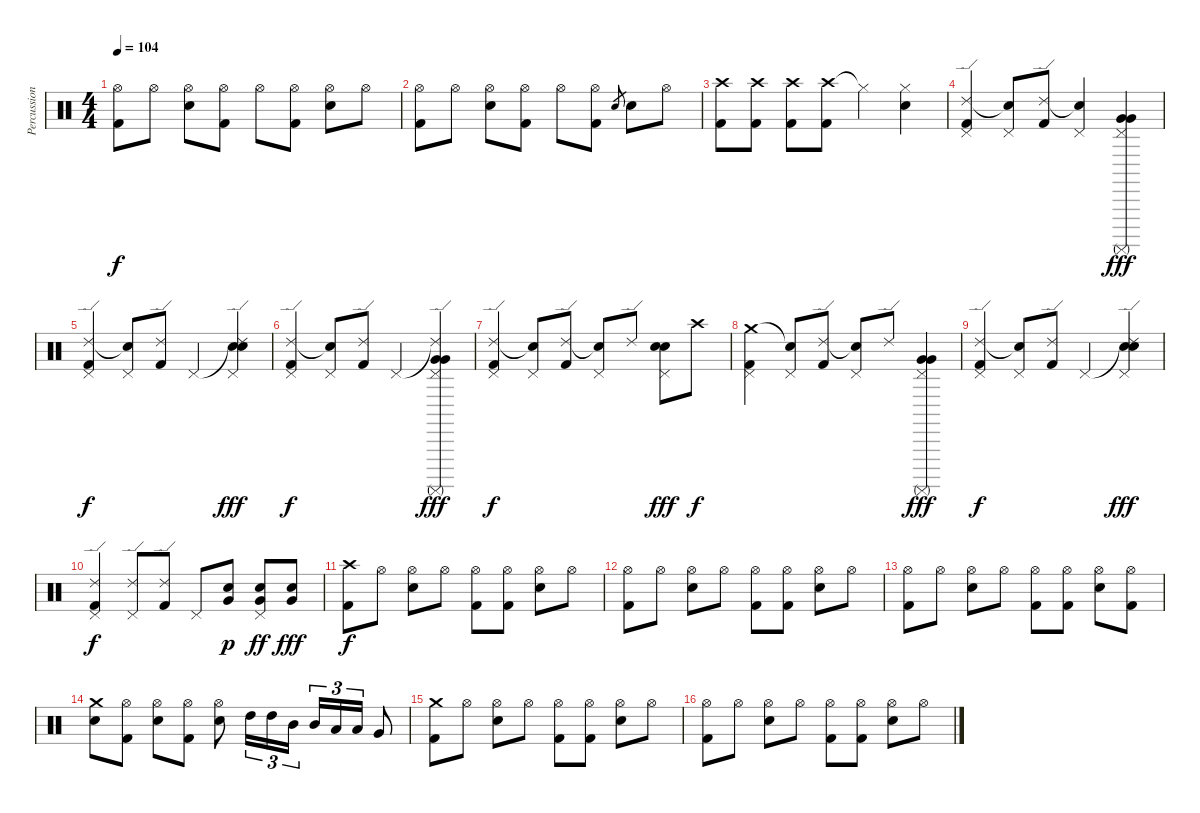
\track ("Percussion" "Percussion") {instrument percussion}
\staff {score}
\articulation defaults
\ts (4 4)
\tempo 104
\clef neutral
\ks c
("Hi-Hat (open)" "Kick (hit) 2").8{dy f} "Hi-Hat (open)".8 ("Hi-Hat (open)" "Snare (hit) 2").8 ("Hi-Hat (open)" "Kick (hit) 2").8 "Hi-Hat (open)".8 ("Hi-Hat (open)" "Kick (hit) 2").8 ("Hi-Hat (open)" "Snare (hit) 2").8 "Hi-Hat (open)".8 |
("Hi-Hat (open)" "Kick (hit) 2").8 "Hi-Hat (open)".8 ("Hi-Hat (open)" "Snare (hit) 2").8 ("Hi-Hat (open)" "Kick (hit) 2").8 "Hi-Hat (open)".8 ("Hi-Hat (open)" "Kick (hit) 2").8 "Snare (hit) 2".8{gr} "Snare (hit) 2".8 "Hi-Hat (open)".8 |
("Crash high (hit)" "Kick (hit) 2").8 ("Crash high (hit)" "Kick (hit) 2").8 ("Crash high (hit)" "Kick (hit) 2").8 ("Crash high (hit)" "Kick (hit) 2").8 "Hi-Hat (closed)"{t}.4 ("Hi-Hat (closed)" "Snare (hit) 2").4 |
("Ride (edge) 2" "Kick (hit) 2" "Pedal Hi-Hat (hit)").4 ("Snare (hit)"{t} "Pedal Hi-Hat (hit)").8 ("Ride (edge) 2" "Kick (hit) 2").8 ("Snare (hit)"{t} "Pedal Hi-Hat (hit)").4 ("Very Low Tom (hit)" "Very Low Tom (hit)" "Surdo (mute)" "Pedal Hi-Hat (hit)").4{dy fff} |
("Ride (edge) 2" "Kick (hit) 2" "Pedal Hi-Hat (hit)").4{dy f} ("Snare (hit)"{t} "Pedal Hi-Hat (hit)").8 ("Ride (edge) 2" "Kick (hit) 2").8 "Pedal Hi-Hat (hit)".4 ("Ride (edge) 2"{t} "Snare (hit) 2" "Snare (hit) 2" "Pedal Hi-Hat (hit)").4{dy fff} |
("Ride (edge) 2" "Kick (hit) 2" "Pedal Hi-Hat (hit)").4{dy f} ("Snare (hit)"{t} "Pedal Hi-Hat (hit)").8 ("Ride (edge) 2" "Kick (hit) 2").8 "Pedal Hi-Hat (hit)".4 ("Ride (edge) 2"{t} "Very Low Tom (hit)" "Very Low Tom (hit)" "Surdo (mute)" "Pedal Hi-Hat (hit)").4{dy fff} |
("Ride (edge) 2" "Kick (hit) 2" "Pedal Hi-Hat (hit)").4{dy f} ("Snare (hit)"{t} "Pedal Hi-Hat (hit)").8 ("Ride (edge) 2" "Kick (hit) 2").8 ("Snare (hit)"{t} "Pedal Hi-Hat (hit)").8 "Ride (edge) 2".8 ("Snare (hit) 2" "Snare (hit) 2" "Pedal Hi-Hat (hit)").8{dy fff} "Crash high (hit)".8{dy f} |
("Crash medium (hit)" "Kick (hit) 2" "Pedal Hi-Hat (hit)").4 ("Snare (hit)"{t} "Pedal Hi-Hat (hit)").8 ("Ride (edge) 2" "Kick (hit) 2").8 ("Snare (hit)"{t} "Pedal Hi-Hat (hit)").8 "Ride (edge) 2".8 ("Very Low Tom (hit)" "Very Low Tom (hit)" "Surdo (mute)" "Pedal Hi-Hat (hit)").4{dy fff} |
("Ride (edge) 2" "Kick (hit) 2" "Pedal Hi-Hat (hit)").4{dy f} ("Snare (hit)"{t} "Pedal Hi-Hat (hit)").8 ("Ride (edge) 2" "Kick (hit) 2").8 "Pedal Hi-Hat (hit)".4 ("Ride (edge) 2"{t} "Snare (hit) 2" "Snare (hit) 2" "Pedal Hi-Hat (hit)").4{dy fff} |
("Ride (edge) 2" "Kick (hit) 2" "Pedal Hi-Hat (hit)").4{dy f} ("Ride (edge) 2" "Pedal Hi-Hat (hit)").8 ("Ride (edge) 2" "Kick (hit) 2").8 "Pedal Hi-Hat (hit)".8 ("Snare (hit) 2" "Very Low Tom (hit)").8{dy p} ("Snare (hit) 2" "Very Low Tom (hit)" "Pedal Hi-Hat (hit)").8{dy ff} ("Snare (hit) 2" "Very Low Tom (hit)").8{dy fff} |
("Crash high (hit)" "Kick (hit) 2").8{dy f} "Hi-Hat (open)".8 ("Hi-Hat (open)" "Snare (hit) 2").8 "Hi-Hat (open)".8 ("Hi-Hat (open)" "Kick (hit) 2").8 ("Hi-Hat (open)" "Kick (hit) 2").8 ("Hi-Hat (open)" "Snare (hit) 2").8 "Hi-Hat (open)".8 |
("Hi-Hat (open)" "Kick (hit) 2").8 "Hi-Hat (open)".8 ("Hi-Hat (open)" "Snare (hit) 2").8 "Hi-Hat (open)".8 ("Hi-Hat (open)" "Kick (hit) 2").8 ("Hi-Hat (open)" "Kick (hit) 2").8 ("Hi-Hat (open)" "Snare (hit) 2").8 "Hi-Hat (open)".8 |
("Hi-Hat (open)" "Kick (hit) 2").8 "Hi-Hat (open)".8 ("Hi-Hat (open)" "Snare (hit) 2").8 "Hi-Hat (open)".8 ("Hi-Hat (open)" "Kick (hit) 2").8 ("Hi-Hat (open)" "Kick (hit) 2").8 ("Hi-Hat (open)" "Snare (hit) 2").8 ("Hi-Hat (open)" "Kick (hit) 2").8 |
("Crash medium (hit)" "Snare (hit) 2").8 ("Hi-Hat (open)" "Kick (hit) 2").8 ("Hi-Hat (open)" "Snare (hit) 2").8 ("Hi-Hat (open)" "Kick (hit) 2").8 ("Hi-Hat (open)" "Snare (hit) 2").8 "High Tom (hit)".16{tu (3 2)} "High Tom (hit)".16{tu (3 2)} "Mid Tom (hit)".16{tu (3 2)} "Mid Tom (hit)".16{tu (3 2)} "Low Tom (hit)".16{tu (3 2)} "Low Tom (hit)".16{tu (3 2)} "Very Low Tom (hit)".8 |
("Crash medium (hit)" "Kick (hit) 2").8 "Hi-Hat (open)".8 ("Hi-Hat (open)" "Snare (hit) 2").8 "Hi-Hat (open)".8 ("Hi-Hat (open)" "Kick (hit) 2").8 ("Hi-Hat (open)" "Kick (hit) 2").8 ("Hi-Hat (open)" "Snare (hit) 2").8 "Hi-Hat (open)".8 |
("Hi-Hat (open)" "Kick (hit) 2").8 "Hi-Hat (open)".8 ("Hi-Hat (open)" "Snare (hit) 2").8 "Hi-Hat (open)".8 ("Hi-Hat (open)" "Kick (hit) 2").8 ("Hi-Hat (open)" "Kick (hit) 2").8 ("Hi-Hat (open)" "Snare (hit) 2").8 "Hi-Hat (open)".8
